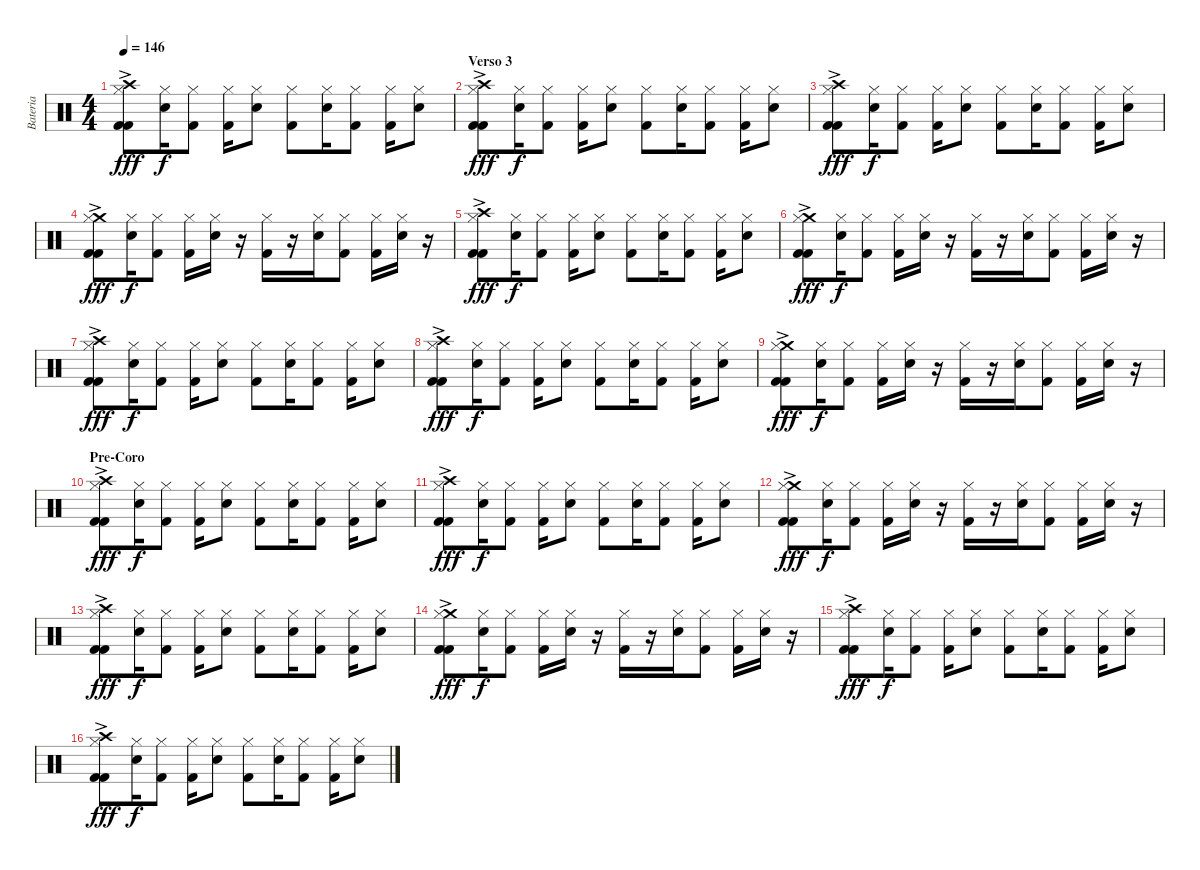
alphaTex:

\track ("Bateria" "Bateria") {instrument percussion}
\staff {score}
\articulation defaults
\ts (4 4)
\tempo 146
\clef neutral
\ks c
("Crash high (hit)"{ac} "Hi-Hat (closed)" "Kick (hit) 2" "Kick (hit) 2").8{dy fff} ("Hi-Hat (closed)" "Electric Snare (hit)").16{dy f} ("Hi-Hat (closed)" "Kick (hit) 2").8 ("Hi-Hat (closed)" "Kick (hit) 2").16 ("Hi-Hat (closed)" "Electric Snare (hit)").8 ("Hi-Hat (closed)" "Kick (hit) 2").8 ("Hi-Hat (closed)" "Electric Snare (hit)").16 ("Hi-Hat (closed)" "Kick (hit) 2").8 ("Hi-Hat (closed)" "Kick (hit) 2").16 ("Hi-Hat (closed)" "Electric Snare (hit)").8 |
\section ("" "Verso 3")
("Crash high (hit)"{ac} "Hi-Hat (closed)" "Kick (hit) 2" "Kick (hit) 2").8{dy fff} ("Hi-Hat (closed)" "Electric Snare (hit)").16{dy f} ("Hi-Hat (closed)" "Kick (hit) 2").8 ("Hi-Hat (closed)" "Kick (hit) 2").16 ("Hi-Hat (closed)" "Electric Snare (hit)").8 ("Hi-Hat (closed)" "Kick (hit) 2").8 ("Hi-Hat (closed)" "Electric Snare (hit)").16 ("Hi-Hat (closed)" "Kick (hit) 2").8 ("Hi-Hat (closed)" "Kick (hit) 2").16 ("Hi-Hat (closed)" "Electric Snare (hit)").8 |
("Crash high (hit)"{ac} "Hi-Hat (closed)" "Kick (hit) 2" "Kick (hit) 2").8{dy fff} ("Hi-Hat (closed)" "Electric Snare (hit)").16{dy f} ("Hi-Hat (closed)" "Kick (hit) 2").8 ("Hi-Hat (closed)" "Kick (hit) 2").16 ("Hi-Hat (closed)" "Electric Snare (hit)").8 ("Hi-Hat (closed)" "Kick (hit) 2").8 ("Hi-Hat (closed)" "Electric Snare (hit)").16 ("Hi-Hat (closed)" "Kick (hit) 2").8 ("Hi-Hat (closed)" "Kick (hit) 2").16 ("Hi-Hat (closed)" "Electric Snare (hit)").8 |
("Crash medium (hit)"{ac} "Hi-Hat (closed)" "Kick (hit) 2" "Kick (hit) 2").8{dy fff} ("Hi-Hat (closed)" "Electric Snare (hit)").16{dy f} ("Hi-Hat (closed)" "Kick (hit) 2").8 ("Hi-Hat (closed)" "Kick (hit) 2").16 ("Hi-Hat (closed)" "Electric Snare (hit)").16 r.16 ("Hi-Hat (closed)" "Kick (hit) 2").16 r.16 ("Hi-Hat (closed)" "Electric Snare (hit)").16 ("Hi-Hat (closed)" "Kick (hit) 2").8 ("Hi-Hat (closed)" "Kick (hit) 2").16 ("Hi-Hat (closed)" "Electric Snare (hit)").16 r.16 |
("Crash high (hit)"{ac} "Hi-Hat (closed)" "Kick (hit) 2" "Kick (hit) 2").8{dy fff} ("Hi-Hat (closed)" "Electric Snare (hit)").16{dy f} ("Hi-Hat (closed)" "Kick (hit) 2").8 ("Hi-Hat (closed)" "Kick (hit) 2").16 ("Hi-Hat (closed)" "Electric Snare (hit)").8 ("Hi-Hat (closed)" "Kick (hit) 2").8 ("Hi-Hat (closed)" "Electric Snare (hit)").16 ("Hi-Hat (closed)" "Kick (hit) 2").8 ("Hi-Hat (closed)" "Kick (hit) 2").16 ("Hi-Hat (closed)" "Electric Snare (hit)").8 |
("Crash medium (hit)"{ac} "Hi-Hat (closed)" "Kick (hit) 2" "Kick (hit) 2").8{dy fff} ("Hi-Hat (closed)" "Electric Snare (hit)").16{dy f} ("Hi-Hat (closed)" "Kick (hit) 2").8 ("Hi-Hat (closed)" "Kick (hit) 2").16 ("Hi-Hat (closed)" "Electric Snare (hit)").16 r.16 ("Hi-Hat (closed)" "Kick (hit) 2").16 r.16 ("Hi-Hat (closed)" "Electric Snare (hit)").16 ("Hi-Hat (closed)" "Kick (hit) 2").8 ("Hi-Hat (closed)" "Kick (hit) 2").16 ("Hi-Hat (closed)" "Electric Snare (hit)").16 r.16 |
("Crash high (hit)"{ac} "Hi-Hat (closed)" "Kick (hit) 2" "Kick (hit) 2").8{dy fff} ("Hi-Hat (closed)" "Electric Snare (hit)").16{dy f} ("Hi-Hat (closed)" "Kick (hit) 2").8 ("Hi-Hat (closed)" "Kick (hit) 2").16 ("Hi-Hat (closed)" "Electric Snare (hit)").8 ("Hi-Hat (closed)" "Kick (hit) 2").8 ("Hi-Hat (closed)" "Electric Snare (hit)").16 ("Hi-Hat (closed)" "Kick (hit) 2").8 ("Hi-Hat (closed)" "Kick (hit) 2").16 ("Hi-Hat (closed)" "Electric Snare (hit)").8 |
("Crash high (hit)"{ac} "Hi-Hat (closed)" "Kick (hit) 2" "Kick (hit) 2").8{dy fff} ("Hi-Hat (closed)" "Electric Snare (hit)").16{dy f} ("Hi-Hat (closed)" "Kick (hit) 2").8 ("Hi-Hat (closed)" "Kick (hit) 2").16 ("Hi-Hat (closed)" "Electric Snare (hit)").8 ("Hi-Hat (closed)" "Kick (hit) 2").8 ("Hi-Hat (closed)" "Electric Snare (hit)").16 ("Hi-Hat (closed)" "Kick (hit) 2").8 ("Hi-Hat (closed)" "Kick (hit) 2").16 ("Hi-Hat (closed)" "Electric Snare (hit)").8 |
("Crash medium (hit)"{ac} "Hi-Hat (closed)" "Kick (hit) 2" "Kick (hit) 2").8{dy fff} ("Hi-Hat (closed)" "Electric Snare (hit)").16{dy f} ("Hi-Hat (closed)" "Kick (hit) 2").8 ("Hi-Hat (closed)" "Kick (hit) 2").16 ("Hi-Hat (closed)" "Electric Snare (hit)").16 r.16 ("Hi-Hat (closed)" "Kick (hit) 2").16 r.16 ("Hi-Hat (closed)" "Electric Snare (hit)").16 ("Hi-Hat (closed)" "Kick (hit) 2").8 ("Hi-Hat (closed)" "Kick (hit) 2").16 ("Hi-Hat (closed)" "Electric Snare (hit)").16 r.16 |
\section ("" "Pre-Coro")
("Crash high (hit)"{ac} "Hi-Hat (closed)" "Kick (hit) 2" "Kick (hit) 2").8{dy fff} ("Hi-Hat (closed)" "Electric Snare (hit)").16{dy f} ("Hi-Hat (closed)" "Kick (hit) 2").8 ("Hi-Hat (closed)" "Kick (hit) 2").16 ("Hi-Hat (closed)" "Electric Snare (hit)").8 ("Hi-Hat (closed)" "Kick (hit) 2").8 ("Hi-Hat (closed)" "Electric Snare (hit)").16 ("Hi-Hat (closed)" "Kick (hit) 2").8 ("Hi-Hat (closed)" "Kick (hit) 2").16 ("Hi-Hat (closed)" "Electric Snare (hit)").8 |
("Crash high (hit)"{ac} "Hi-Hat (closed)" "Kick (hit) 2" "Kick (hit) 2").8{dy fff} ("Hi-Hat (closed)" "Electric Snare (hit)").16{dy f} ("Hi-Hat (closed)" "Kick (hit) 2").8 ("Hi-Hat (closed)" "Kick (hit) 2").16 ("Hi-Hat (closed)" "Electric Snare (hit)").8 ("Hi-Hat (closed)" "Kick (hit) 2").8 ("Hi-Hat (closed)" "Electric Snare (hit)").16 ("Hi-Hat (closed)" "Kick (hit) 2").8 ("Hi-Hat (closed)" "Kick (hit) 2").16 ("Hi-Hat (closed)" "Electric Snare (hit)").8 |
("Crash medium (hit)"{ac} "Hi-Hat (closed)" "Kick (hit) 2" "Kick (hit) 2").8{dy fff} ("Hi-Hat (closed)" "Electric Snare (hit)").16{dy f} ("Hi-Hat (closed)" "Kick (hit) 2").8 ("Hi-Hat (closed)" "Kick (hit) 2").16 ("Hi-Hat (closed)" "Electric Snare (hit)").16 r.16 ("Hi-Hat (closed)" "Kick (hit) 2").16 r.16 ("Hi-Hat (closed)" "Electric Snare (hit)").16 ("Hi-Hat (closed)" "Kick (hit) 2").8 ("Hi-Hat (closed)" "Kick (hit) 2").16 ("Hi-Hat (closed)" "Electric Snare (hit)").16 r.16 |
("Crash high (hit)"{ac} "Hi-Hat (closed)" "Kick (hit) 2" "Kick (hit) 2").8{dy fff} ("Hi-Hat (closed)" "Electric Snare (hit)").16{dy f} ("Hi-Hat (closed)" "Kick (hit) 2").8 ("Hi-Hat (closed)" "Kick (hit) 2").16 ("Hi-Hat (closed)" "Electric Snare (hit)").8 ("Hi-Hat (closed)" "Kick (hit) 2").8 ("Hi-Hat (closed)" "Electric Snare (hit)").16 ("Hi-Hat (closed)" "Kick (hit) 2").8 ("Hi-Hat (closed)" "Kick (hit) 2").16 ("Hi-Hat (closed)" "Electric Snare (hit)").8 |
("Crash medium (hit)"{ac} "Hi-Hat (closed)" "Kick (hit) 2" "Kick (hit) 2").8{dy fff} ("Hi-Hat (closed)" "Electric Snare (hit)").16{dy f} ("Hi-Hat (closed)" "Kick (hit) 2").8 ("Hi-Hat (closed)" "Kick (hit) 2").16 ("Hi-Hat (closed)" "Electric Snare (hit)").16 r.16 ("Hi-Hat (closed)" "Kick (hit) 2").16 r.16 ("Hi-Hat (closed)" "Electric Snare (hit)").16 ("Hi-Hat (closed)" "Kick (hit) 2").8 ("Hi-Hat (closed)" "Kick (hit) 2").16 ("Hi-Hat (closed)" "Electric Snare (hit)").16 r.16 |
("Crash high (hit)"{ac} "Hi-Hat (closed)" "Kick (hit) 2" "Kick (hit) 2").8{dy fff} ("Hi-Hat (closed)" "Electric Snare (hit)").16{dy f} ("Hi-Hat (closed)" "Kick (hit) 2").8 ("Hi-Hat (closed)" "Kick (hit) 2").16 ("Hi-Hat (closed)" "Electric Snare (hit)").8 ("Hi-Hat (closed)" "Kick (hit) 2").8 ("Hi-Hat (closed)" "Electric Snare (hit)").16 ("Hi-Hat (closed)" "Kick (hit) 2").8 ("Hi-Hat (closed)" "Kick (hit) 2").16 ("Hi-Hat (closed)" "Electric Snare (hit)").8 |
("Crash high (hit)"{ac} "Hi-Hat (closed)" "Kick (hit) 2" "Kick (hit) 2").8{dy fff} ("Hi-Hat (closed)" "Electric Snare (hit)").16{dy f} ("Hi-Hat (closed)" "Kick (hit) 2").8 ("Hi-Hat (closed)" "Kick (hit) 2").16 ("Hi-Hat (closed)" "Electric Snare (hit)").8 ("Hi-Hat (closed)" "Kick (hit) 2").8 ("Hi-Hat (closed)" "Electric Snare (hit)").16 ("Hi-Hat (closed)" "Kick (hit) 2").8 ("Hi-Hat (closed)" "Kick (hit) 2").16 ("Hi-Hat (closed)" "Electric Snare (hit)").8
